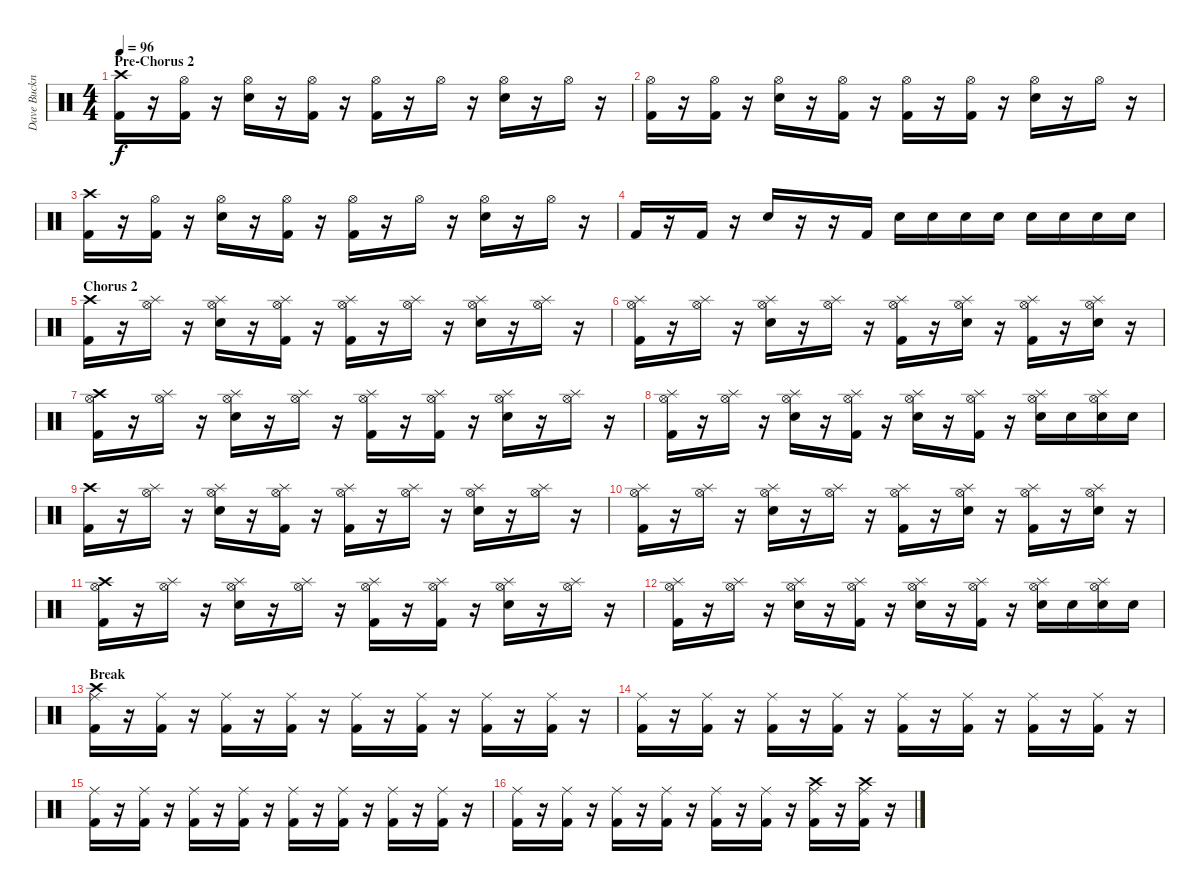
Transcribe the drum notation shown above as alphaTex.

\track ("Dave Buckner - Drums" "Dave Buckn") {instrument percussion}
\staff {score}
\articulation defaults
\ts (4 4)
\section ("" "Pre-Chorus 2")
\tempo 96
\clef neutral
\ks c
("Crash high (hit)" "Kick (hit) 2").16{dy f} r.16 ("Hi-Hat (open)" "Kick (hit) 2").16 r.16 ("Hi-Hat (open)" "Snare (hit) 2").16 r.16 ("Hi-Hat (open)" "Kick (hit) 2").16 r.16 ("Hi-Hat (open)" "Kick (hit) 2").16 r.16 "Hi-Hat (open)".16 r.16 ("Hi-Hat (open)" "Snare (hit) 2").16 r.16 "Hi-Hat (open)".16 r.16 |
("Hi-Hat (open)" "Kick (hit) 2").16 r.16 ("Hi-Hat (open)" "Kick (hit) 2").16 r.16 ("Hi-Hat (open)" "Snare (hit) 2").16 r.16 ("Hi-Hat (open)" "Kick (hit) 2").16 r.16 ("Hi-Hat (open)" "Kick (hit) 2").16 r.16 ("Hi-Hat (open)" "Kick (hit) 2").16 r.16 ("Hi-Hat (open)" "Snare (hit) 2").16 r.16 "Hi-Hat (open)".16 r.16 |
("Crash high (hit)" "Kick (hit) 2").16 r.16 ("Hi-Hat (open)" "Kick (hit) 2").16 r.16 ("Hi-Hat (open)" "Snare (hit) 2").16 r.16 ("Hi-Hat (open)" "Kick (hit) 2").16 r.16 ("Hi-Hat (open)" "Kick (hit) 2").16 r.16 "Hi-Hat (open)".16 r.16 ("Hi-Hat (open)" "Snare (hit) 2").16 r.16 "Hi-Hat (open)".16 r.16 |
"Kick (hit) 2".16 r.16 "Kick (hit) 2".16 r.16 "Snare (hit) 2".16 r.16 r.16 "Kick (hit) 2".16 "Snare (hit) 2".16 "Snare (hit) 2".16 "Snare (hit) 2".16 "Snare (hit) 2".16 "Snare (hit) 2".16 "Snare (hit) 2".16 "Snare (hit) 2".16 "Snare (hit) 2".16 |
\section ("" "Chorus 2")
("Crash high (hit)" "Kick (hit) 2").16 r.16 ("Hi-Hat (open)" "Splash (hit)").16 r.16 ("Hi-Hat (open)" "Splash (hit)" "Snare (hit) 2").16 r.16 ("Hi-Hat (open)" "Splash (hit)" "Kick (hit) 2").16 r.16 ("Hi-Hat (open)" "Splash (hit)" "Kick (hit) 2").16 r.16 ("Hi-Hat (open)" "Splash (hit)").16 r.16 ("Hi-Hat (open)" "Splash (hit)" "Snare (hit) 2").16 r.16 ("Hi-Hat (open)" "Splash (hit)").16 r.16 |
("Hi-Hat (open)" "Splash (hit)" "Kick (hit) 2").16 r.16 ("Hi-Hat (open)" "Splash (hit)").16 r.16 ("Hi-Hat (open)" "Splash (hit)" "Snare (hit) 2").16 r.16 ("Hi-Hat (open)" "Splash (hit)").16 r.16 ("Hi-Hat (open)" "Splash (hit)" "Kick (hit) 2").16 r.16 ("Hi-Hat (open)" "Splash (hit)" "Snare (hit) 2").16 r.16 ("Hi-Hat (open)" "Splash (hit)" "Kick (hit) 2").16 r.16 ("Hi-Hat (open)" "Splash (hit)" "Snare (hit) 2").16 r.16 |
("Crash high (hit)" "Hi-Hat (open)" "Kick (hit) 2").16 r.16 ("Hi-Hat (open)" "Splash (hit)").16 r.16 ("Hi-Hat (open)" "Splash (hit)" "Snare (hit) 2").16 r.16 ("Hi-Hat (open)" "Splash (hit)").16 r.16 ("Hi-Hat (open)" "Splash (hit)" "Kick (hit) 2").16 r.16 ("Hi-Hat (open)" "Splash (hit)" "Kick (hit) 2").16 r.16 ("Hi-Hat (open)" "Splash (hit)" "Snare (hit) 2").16 r.16 ("Hi-Hat (open)" "Splash (hit)").16 r.16 |
("Hi-Hat (open)" "Splash (hit)" "Kick (hit) 2").16 r.16 ("Hi-Hat (open)" "Splash (hit)").16 r.16 ("Hi-Hat (open)" "Splash (hit)" "Snare (hit) 2").16 r.16 ("Hi-Hat (open)" "Splash (hit)" "Kick (hit) 2").16 r.16 ("Hi-Hat (open)" "Splash (hit)" "Snare (hit) 2").16 r.16 ("Hi-Hat (open)" "Splash (hit)" "Kick (hit) 2").16 r.16 ("Hi-Hat (open)" "Splash (hit)" "Snare (hit) 2").16 "Snare (hit) 2".16 ("Hi-Hat (open)" "Splash (hit)" "Snare (hit) 2").16 "Snare (hit) 2".16 |
("Crash high (hit)" "Kick (hit) 2").16 r.16 ("Hi-Hat (open)" "Splash (hit)").16 r.16 ("Hi-Hat (open)" "Splash (hit)" "Snare (hit) 2").16 r.16 ("Hi-Hat (open)" "Splash (hit)" "Kick (hit) 2").16 r.16 ("Hi-Hat (open)" "Splash (hit)" "Kick (hit) 2").16 r.16 ("Hi-Hat (open)" "Splash (hit)").16 r.16 ("Hi-Hat (open)" "Splash (hit)" "Snare (hit) 2").16 r.16 ("Hi-Hat (open)" "Splash (hit)").16 r.16 |
("Hi-Hat (open)" "Splash (hit)" "Kick (hit) 2").16 r.16 ("Hi-Hat (open)" "Splash (hit)").16 r.16 ("Hi-Hat (open)" "Splash (hit)" "Snare (hit) 2").16 r.16 ("Hi-Hat (open)" "Splash (hit)").16 r.16 ("Hi-Hat (open)" "Splash (hit)" "Kick (hit) 2").16 r.16 ("Hi-Hat (open)" "Splash (hit)" "Snare (hit) 2").16 r.16 ("Hi-Hat (open)" "Splash (hit)" "Kick (hit) 2").16 r.16 ("Hi-Hat (open)" "Splash (hit)" "Snare (hit) 2").16 r.16 |
("Crash high (hit)" "Hi-Hat (open)" "Kick (hit) 2").16 r.16 ("Hi-Hat (open)" "Splash (hit)").16 r.16 ("Hi-Hat (open)" "Splash (hit)" "Snare (hit) 2").16 r.16 ("Hi-Hat (open)" "Splash (hit)").16 r.16 ("Hi-Hat (open)" "Splash (hit)" "Kick (hit) 2").16 r.16 ("Hi-Hat (open)" "Splash (hit)" "Kick (hit) 2").16 r.16 ("Hi-Hat (open)" "Splash (hit)" "Snare (hit) 2").16 r.16 ("Hi-Hat (open)" "Splash (hit)").16 r.16 |
("Hi-Hat (open)" "Splash (hit)" "Kick (hit) 2").16 r.16 ("Hi-Hat (open)" "Splash (hit)").16 r.16 ("Hi-Hat (open)" "Splash (hit)" "Snare (hit) 2").16 r.16 ("Hi-Hat (open)" "Splash (hit)" "Kick (hit) 2").16 r.16 ("Hi-Hat (open)" "Splash (hit)" "Snare (hit) 2").16 r.16 ("Hi-Hat (open)" "Splash (hit)" "Kick (hit) 2").16 r.16 ("Hi-Hat (open)" "Splash (hit)" "Snare (hit) 2").16 "Snare (hit) 2".16 ("Hi-Hat (open)" "Splash (hit)" "Snare (hit) 2").16 "Snare (hit) 2".16 |
\section ("" "Break")
("Crash high (hit)" "Ride (middle)" "Kick (hit) 2").16 r.16 ("Ride (middle)" "Kick (hit) 2").16 r.16 ("Ride (middle)" "Kick (hit) 2").16 r.16 ("Ride (middle)" "Kick (hit) 2").16 r.16 ("Ride (middle)" "Kick (hit) 2").16 r.16 ("Ride (middle)" "Kick (hit) 2").16 r.16 ("Ride (middle)" "Kick (hit) 2").16 r.16 ("Ride (middle)" "Kick (hit) 2").16 r.16 |
("Ride (middle)" "Kick (hit) 2").16 r.16 ("Ride (middle)" "Kick (hit) 2").16 r.16 ("Ride (middle)" "Kick (hit) 2").16 r.16 ("Ride (middle)" "Kick (hit) 2").16 r.16 ("Ride (middle)" "Kick (hit) 2").16 r.16 ("Ride (middle)" "Kick (hit) 2").16 r.16 ("Ride (middle)" "Kick (hit) 2").16 r.16 ("Ride (middle)" "Kick (hit) 2").16 r.16 |
("Ride (middle)" "Kick (hit) 2").16 r.16 ("Ride (middle)" "Kick (hit) 2").16 r.16 ("Ride (middle)" "Kick (hit) 2").16 r.16 ("Ride (middle)" "Kick (hit) 2").16 r.16 ("Ride (middle)" "Kick (hit) 2").16 r.16 ("Ride (middle)" "Kick (hit) 2").16 r.16 ("Ride (middle)" "Kick (hit) 2").16 r.16 ("Ride (middle)" "Kick (hit) 2").16 r.16 |
("Ride (middle)" "Kick (hit) 2").16 r.16 ("Ride (middle)" "Kick (hit) 2").16 r.16 ("Ride (middle)" "Kick (hit) 2").16 r.16 ("Ride (middle)" "Kick (hit) 2").16 r.16 ("Ride (middle)" "Kick (hit) 2").16 r.16 ("Ride (middle)" "Kick (hit) 2").16 r.16 ("Crash high (hit)" "Ride (middle)" "Kick (hit) 2").16 r.16 ("Crash high (hit)" "Ride (middle)" "Kick (hit) 2").16 r.16
